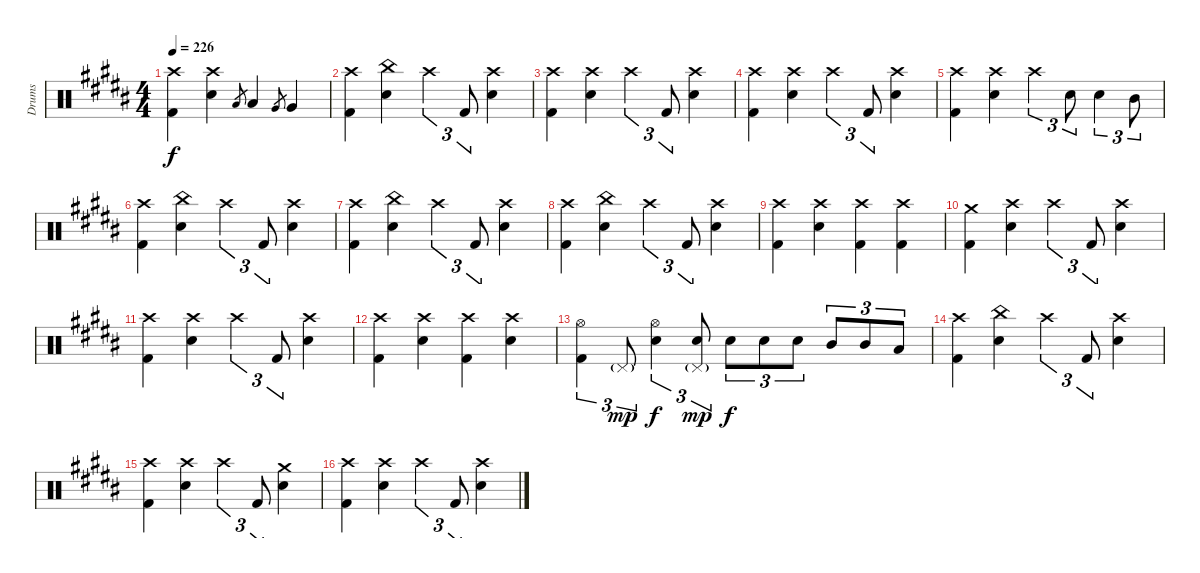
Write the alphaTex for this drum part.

\track ("Drums" "Drums") {instrument percussion}
\staff {score}
\articulation defaults
\ts (4 4)
\tempo 226
\clef neutral
\ks b
("Crash high (hit)" "Kick (hit) 2").4{dy f} ("Crash high (hit)" "Snare (hit) 2").4 "Low Tom (hit)".8{gr} "Low Tom (hit)".4 "Very Low Tom (hit)".8{gr} "Very Low Tom (hit)".4 |
("Crash high (hit)" "Kick (hit) 2").4 ("China (hit)" "Snare (hit) 2").4 "Crash high (hit)".4{tu (3 2)} "Kick (hit) 2".8{tu (3 2)} ("Crash high (hit)" "Snare (hit) 2").4 |
("Crash high (hit)" "Kick (hit) 2").4 ("Crash high (hit)" "Snare (hit) 2").4 "Crash high (hit)".4{tu (3 2)} "Kick (hit) 2".8{tu (3 2)} ("Crash high (hit)" "Snare (hit) 2").4 |
("Crash high (hit)" "Kick (hit) 2").4 ("Crash high (hit)" "Snare (hit) 2").4 "Crash high (hit)".4{tu (3 2)} "Kick (hit) 2".8{tu (3 2)} ("Crash high (hit)" "Snare (hit) 2").4 |
("Crash high (hit)" "Kick (hit) 2").4 ("Crash high (hit)" "Snare (hit) 2").4 "Crash high (hit)".4{tu (3 2)} "Snare (hit) 2".8{tu (3 2)} "Snare (hit) 2".4{tu (3 2)} "Mid Tom (hit)".8{tu (3 2)} |
("Crash high (hit)" "Kick (hit) 2").4 ("China (hit)" "Snare (hit) 2").4 "Crash high (hit)".4{tu (3 2)} "Kick (hit) 2".8{tu (3 2)} ("Crash high (hit)" "Snare (hit) 2").4 |
("Crash high (hit)" "Kick (hit) 2").4 ("China (hit)" "Snare (hit) 2").4 "Crash high (hit)".4{tu (3 2)} "Kick (hit) 2".8{tu (3 2)} ("Crash high (hit)" "Snare (hit) 2").4 |
("Crash high (hit)" "Kick (hit) 2").4 ("China (hit)" "Snare (hit) 2").4 "Crash high (hit)".4{tu (3 2)} "Kick (hit) 2".8{tu (3 2)} ("Crash high (hit)" "Snare (hit) 2").4 |
("Crash high (hit)" "Kick (hit) 2").4 ("Crash high (hit)" "Snare (hit) 2").4 ("Crash high (hit)" "Kick (hit) 2").4 ("Crash high (hit)" "Kick (hit) 2").4 |
("Crash medium (hit)" "Kick (hit) 2").4 ("Crash high (hit)" "Snare (hit) 2").4 "Crash high (hit)".4{tu (3 2)} "Kick (hit) 2".8{tu (3 2)} ("Crash high (hit)" "Snare (hit) 2").4 |
("Crash high (hit)" "Kick (hit) 2").4 ("Crash high (hit)" "Snare (hit) 2").4 "Crash high (hit)".4{tu (3 2)} "Kick (hit) 2".8{tu (3 2)} ("Crash high (hit)" "Snare (hit) 2").4 |
("Crash high (hit)" "Kick (hit) 2").4 ("Crash high (hit)" "Snare (hit) 2").4 ("Crash high (hit)" "Kick (hit) 2").4 ("Crash high (hit)" "Snare (hit) 2").4 |
("Hi-Hat (open)" "Kick (hit) 2").4{tu (3 2)} "Pedal Hi-Hat (hit)"{g}.8{tu (3 2) dy mp} ("Hi-Hat (open)" "Snare (hit) 2").4{tu (3 2) dy f} ("Pedal Hi-Hat (hit)"{g} "Snare (hit) 2").8{tu (3 2) dy mp} "Snare (hit) 2".8{tu (3 2) dy f} "Snare (hit) 2".8{tu (3 2)} "Snare (hit) 2".8{tu (3 2)} "Mid Tom (hit)".8{tu (3 2)} "Mid Tom (hit)".8{tu (3 2)} "Low Tom (hit)".8{tu (3 2)} |
("Crash high (hit)" "Kick (hit) 2").4 ("China (hit)" "Snare (hit) 2").4 "Crash high (hit)".4{tu (3 2)} "Kick (hit) 2".8{tu (3 2)} ("Crash high (hit)" "Snare (hit) 2").4 |
("Crash high (hit)" "Kick (hit) 2").4 ("Crash high (hit)" "Snare (hit) 2").4 "Crash high (hit)".4{tu (3 2)} "Kick (hit) 2".8{tu (3 2)} ("Crash medium (hit)" "Snare (hit) 2").4 |
("Crash high (hit)" "Kick (hit) 2").4 ("Crash high (hit)" "Snare (hit) 2").4 "Crash high (hit)".4{tu (3 2)} "Kick (hit) 2".8{tu (3 2)} ("Crash high (hit)" "Snare (hit) 2").4
